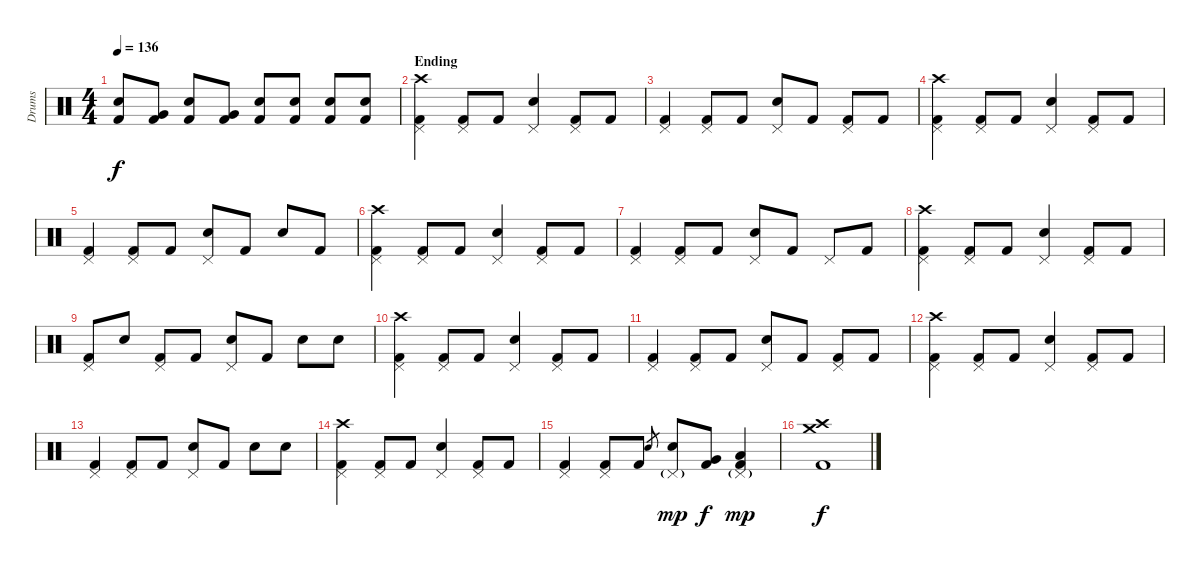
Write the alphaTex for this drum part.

\track ("Drums" "Drums") {instrument percussion}
\staff {score}
\articulation defaults
\ts (4 4)
\tempo 136
\clef neutral
\ks c
("Snare (hit) 2" "Kick (hit) 2").8{dy f} ("Very Low Tom (hit)" "Kick (hit) 2").8 ("Snare (hit) 2" "Kick (hit) 2").8 ("Very Low Tom (hit)" "Kick (hit) 2").8 ("Snare (hit) 2" "Kick (hit) 2").8 ("Snare (hit) 2" "Kick (hit) 2").8 ("Snare (hit) 2" "Kick (hit) 2").8 ("Snare (hit) 2" "Kick (hit) 2").8 |
\section ("" "Ending")
("Pedal Hi-Hat (hit)" "Crash high (hit)" "Kick (hit) 2").4 ("Pedal Hi-Hat (hit)" "Kick (hit) 2").8 "Kick (hit) 2".8 ("Pedal Hi-Hat (hit)" "Snare (hit) 2").4 ("Pedal Hi-Hat (hit)" "Kick (hit) 2").8 "Kick (hit) 2".8 |
("Pedal Hi-Hat (hit)" "Kick (hit) 2").4 ("Pedal Hi-Hat (hit)" "Kick (hit) 2").8 "Kick (hit) 2".8 ("Pedal Hi-Hat (hit)" "Snare (hit) 2").8 "Kick (hit) 2".8 ("Pedal Hi-Hat (hit)" "Kick (hit) 2").8 "Kick (hit) 2".8 |
("Pedal Hi-Hat (hit)" "Crash high (hit)" "Kick (hit) 2").4 ("Pedal Hi-Hat (hit)" "Kick (hit) 2").8 "Kick (hit) 2".8 ("Pedal Hi-Hat (hit)" "Snare (hit) 2").4 ("Pedal Hi-Hat (hit)" "Kick (hit) 2").8 "Kick (hit) 2".8 |
("Pedal Hi-Hat (hit)" "Kick (hit) 2").4 ("Pedal Hi-Hat (hit)" "Kick (hit) 2").8 "Kick (hit) 2".8 ("Pedal Hi-Hat (hit)" "Snare (hit) 2").8 "Kick (hit) 2".8 "Snare (hit) 2".8 "Kick (hit) 2".8 |
("Pedal Hi-Hat (hit)" "Crash high (hit)" "Kick (hit) 2").4 ("Pedal Hi-Hat (hit)" "Kick (hit) 2").8 "Kick (hit) 2".8 ("Pedal Hi-Hat (hit)" "Snare (hit) 2").4 ("Pedal Hi-Hat (hit)" "Kick (hit) 2").8 "Kick (hit) 2".8 |
("Pedal Hi-Hat (hit)" "Kick (hit) 2").4 ("Pedal Hi-Hat (hit)" "Kick (hit) 2").8 "Kick (hit) 2".8 ("Pedal Hi-Hat (hit)" "Snare (hit) 2").8 "Kick (hit) 2".8 "Pedal Hi-Hat (hit)".8 "Kick (hit) 2".8 |
("Pedal Hi-Hat (hit)" "Crash high (hit)" "Kick (hit) 2").4 ("Pedal Hi-Hat (hit)" "Kick (hit) 2").8 "Kick (hit) 2".8 ("Pedal Hi-Hat (hit)" "Snare (hit) 2").4 ("Pedal Hi-Hat (hit)" "Kick (hit) 2").8 "Kick (hit) 2".8 |
("Pedal Hi-Hat (hit)" "Kick (hit) 2").8 "Snare (hit) 2".8 ("Pedal Hi-Hat (hit)" "Kick (hit) 2").8 "Kick (hit) 2".8 ("Pedal Hi-Hat (hit)" "Snare (hit) 2").8 "Kick (hit) 2".8 "Snare (hit) 2".8 "Snare (hit) 2".8 |
("Pedal Hi-Hat (hit)" "Crash high (hit)" "Kick (hit) 2").4 ("Pedal Hi-Hat (hit)" "Kick (hit) 2").8 "Kick (hit) 2".8 ("Pedal Hi-Hat (hit)" "Snare (hit) 2").4 ("Pedal Hi-Hat (hit)" "Kick (hit) 2").8 "Kick (hit) 2".8 |
("Pedal Hi-Hat (hit)" "Kick (hit) 2").4 ("Pedal Hi-Hat (hit)" "Kick (hit) 2").8 "Kick (hit) 2".8 ("Pedal Hi-Hat (hit)" "Snare (hit) 2").8 "Kick (hit) 2".8 ("Pedal Hi-Hat (hit)" "Kick (hit) 2").8 "Kick (hit) 2".8 |
("Pedal Hi-Hat (hit)" "Crash high (hit)" "Kick (hit) 2").4 ("Pedal Hi-Hat (hit)" "Kick (hit) 2").8 "Kick (hit) 2".8 ("Pedal Hi-Hat (hit)" "Snare (hit) 2").4 ("Pedal Hi-Hat (hit)" "Kick (hit) 2").8 "Kick (hit) 2".8 |
("Pedal Hi-Hat (hit)" "Kick (hit) 2").4 ("Pedal Hi-Hat (hit)" "Kick (hit) 2").8 "Kick (hit) 2".8 ("Pedal Hi-Hat (hit)" "Snare (hit) 2").8 "Kick (hit) 2".8 "Snare (hit) 2".8 "Snare (hit) 2".8 |
("Pedal Hi-Hat (hit)" "Crash high (hit)" "Kick (hit) 2").4 ("Pedal Hi-Hat (hit)" "Kick (hit) 2").8 "Kick (hit) 2".8 ("Pedal Hi-Hat (hit)" "Snare (hit) 2").4 ("Pedal Hi-Hat (hit)" "Kick (hit) 2").8 "Kick (hit) 2".8 |
("Pedal Hi-Hat (hit)" "Kick (hit) 2").4 ("Pedal Hi-Hat (hit)" "Kick (hit) 2").8 "Kick (hit) 2".8 "Snare (hit) 2".8{gr} ("Pedal Hi-Hat (hit)"{g} "Snare (hit) 2").8{dy mp} ("Very Low Tom (hit)" "Kick (hit) 2").8{dy f} ("Pedal Hi-Hat (hit)"{g} "Low Floor Tom (hit)" "Kick (hit) 2").4{dy mp} |
("Crash medium (hit)" "Crash high (hit)" "Kick (hit) 2").1{dy f}
